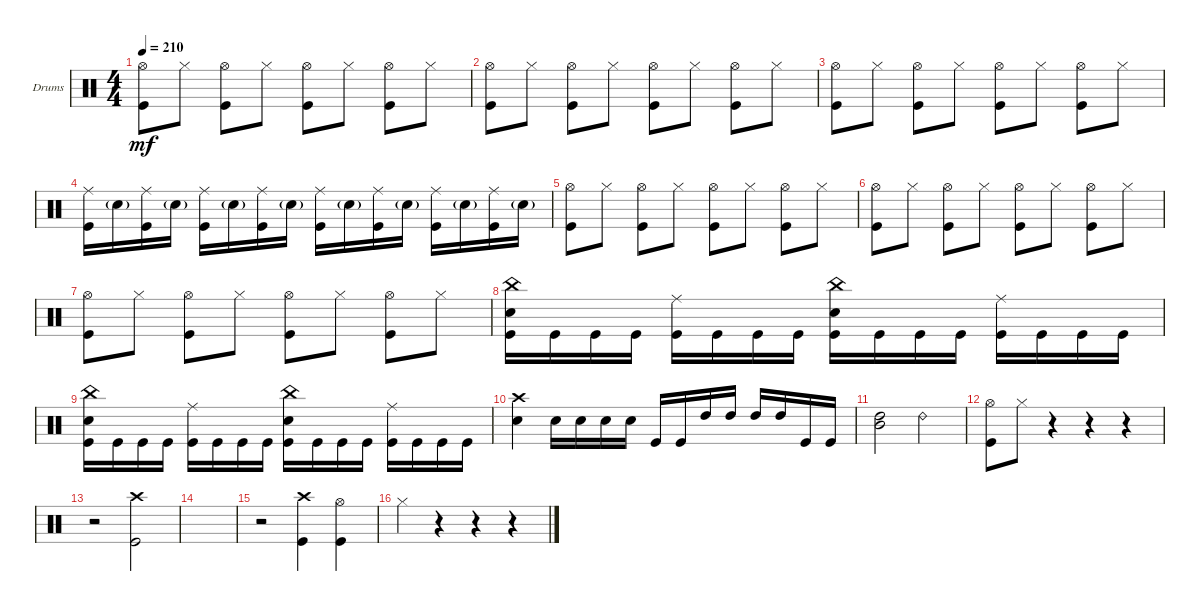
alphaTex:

\bracketExtendMode groupsimilarinstruments
\firstSystemTrackNameOrientation horizontal
\otherSystemsTrackNameOrientation horizontal
\track ("Drumkit" "Drums") {instrument percussion}
\staff {score}
\articulation defaults
\ts (4 4)
\tempo 210
\clef neutral
\ks c
("Kick (hit)" "Hi-Hat (open)").8{dy mf} "Hi-Hat (closed)".8 ("Kick (hit)" "Hi-Hat (open)").8 "Hi-Hat (closed)".8 ("Kick (hit)" "Hi-Hat (open)").8 "Hi-Hat (closed)".8 ("Kick (hit)" "Hi-Hat (open)").8 "Hi-Hat (closed)".8 |
("Kick (hit)" "Hi-Hat (open)").8 "Hi-Hat (closed)".8 ("Kick (hit)" "Hi-Hat (open)").8 "Hi-Hat (closed)".8 ("Kick (hit)" "Hi-Hat (open)").8 "Hi-Hat (closed)".8 ("Kick (hit)" "Hi-Hat (open)").8 "Hi-Hat (closed)".8 |
("Kick (hit)" "Hi-Hat (open)").8 "Hi-Hat (closed)".8 ("Kick (hit)" "Hi-Hat (open)").8 "Hi-Hat (closed)".8 ("Kick (hit)" "Hi-Hat (open)").8 "Hi-Hat (closed)".8 ("Kick (hit)" "Hi-Hat (open)").8 "Hi-Hat (closed)".8 |
("Kick (hit)" "Ride (middle)").16 "Snare (hit) 2"{g}.16 ("Kick (hit)" "Ride (middle)").16 "Snare (hit) 2"{g}.16 ("Kick (hit)" "Ride (middle)").16 "Snare (hit) 2"{g}.16 ("Kick (hit)" "Ride (middle)").16 "Snare (hit) 2"{g}.16 ("Kick (hit)" "Ride (middle)").16 "Snare (hit) 2"{g}.16 ("Kick (hit)" "Ride (middle)").16 "Snare (hit) 2"{g}.16 ("Kick (hit)" "Ride (middle)").16 "Snare (hit) 2"{g}.16 ("Kick (hit)" "Ride (middle)").16 "Snare (hit) 2"{g}.16 |
("Kick (hit)" "Hi-Hat (open)").8 "Hi-Hat (closed)".8 ("Kick (hit)" "Hi-Hat (open)").8 "Hi-Hat (closed)".8 ("Kick (hit)" "Hi-Hat (open)").8 "Hi-Hat (closed)".8 ("Kick (hit)" "Hi-Hat (open)").8 "Hi-Hat (closed)".8 |
("Kick (hit)" "Hi-Hat (open)").8 "Hi-Hat (closed)".8 ("Kick (hit)" "Hi-Hat (open)").8 "Hi-Hat (closed)".8 ("Kick (hit)" "Hi-Hat (open)").8 "Hi-Hat (closed)".8 ("Kick (hit)" "Hi-Hat (open)").8 "Hi-Hat (closed)".8 |
("Kick (hit)" "Hi-Hat (open)").8 "Hi-Hat (closed)".8 ("Kick (hit)" "Hi-Hat (open)").8 "Hi-Hat (closed)".8 ("Kick (hit)" "Hi-Hat (open)").8 "Hi-Hat (closed)".8 ("Kick (hit)" "Hi-Hat (open)").8 "Hi-Hat (closed)".8 |
("Snare (hit) 2" "Kick (hit)" "China (hit)").16 "Kick (hit)".16 "Kick (hit)".16 "Kick (hit)".16 ("Kick (hit)" "Ride (middle)").16 "Kick (hit)".16 "Kick (hit)".16 "Kick (hit)".16 ("Kick (hit)" "Snare (hit) 2" "China (hit)").16 "Kick (hit)".16 "Kick (hit)".16 "Kick (hit)".16 ("Kick (hit)" "Ride (middle)").16 "Kick (hit)".16 "Kick (hit)".16 "Kick (hit)".16 |
("Snare (hit) 2" "Kick (hit)" "China (hit)").16 "Kick (hit)".16 "Kick (hit)".16 "Kick (hit)".16 ("Kick (hit)" "Ride (middle)").16 "Kick (hit)".16 "Kick (hit)".16 "Kick (hit)".16 ("Kick (hit)" "Snare (hit) 2" "China (hit)").16 "Kick (hit)".16 "Kick (hit)".16 "Kick (hit)".16 ("Kick (hit)" "Ride (middle)").16 "Kick (hit)".16 "Kick (hit)".16 "Kick (hit)".16 |
("Snare (hit) 2" "Crash high (hit)").4 "Snare (hit) 2".16 "Snare (hit) 2".16 "Snare (hit) 2".16 "Snare (hit) 2".16 "Kick (hit)".16 "Kick (hit)".16 "High Tom (hit)".16 "High Tom (hit)".16 "High Tom (hit)".16 "High Tom (hit)".16 "Kick (hit)".16 "Kick (hit)".16 |
("Mid Tom (hit)" "High Tom (hit)").2 "Ride (bell) 2".2 |
("Kick (hit)" "Hi-Hat (open)").8 "Hi-Hat (closed)".8 r.4 r.4 r.4 |
r.2 ("Kick (hit)" "Crash high (hit)").2 |
|
r.2 ("Kick (hit)" "Crash high (hit)").4 ("Kick (hit)" "Hi-Hat (open)").4 |
"Hi-Hat (closed)".4 r.4 r.4 r.4
